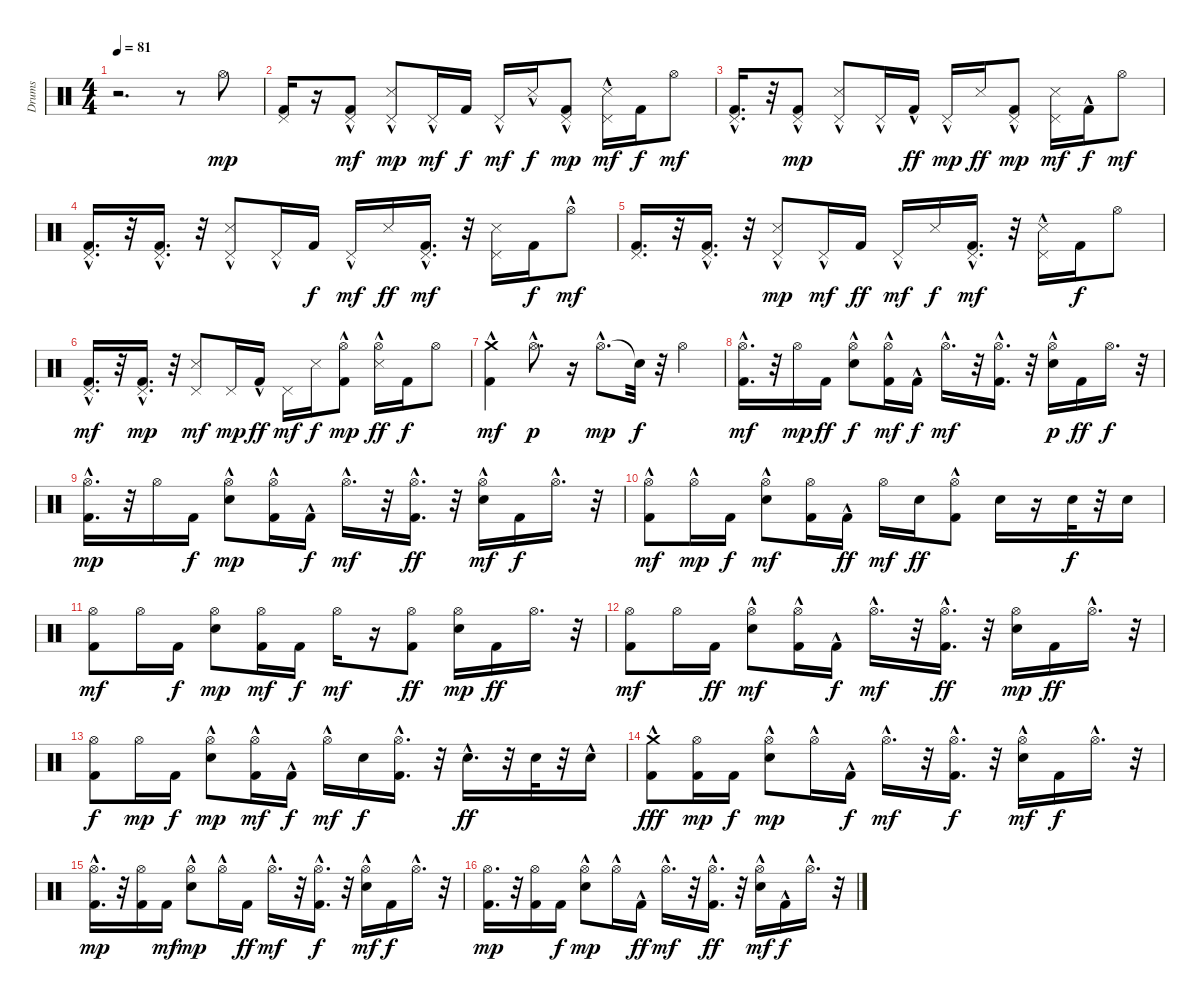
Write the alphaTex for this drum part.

\track ("Drums" "Drums") {instrument percussion}
\staff {score}
\articulation defaults
\ts (4 4)
\tempo 81
\clef neutral
\ks c
r.2{d dy mp} r.8 "Hi-Hat (open)".8 |
("Kick (hit) 2" "Pedal Hi-Hat (hit)").16 r.16 ("Kick (hit) 2" "Pedal Hi-Hat (hit)"{hac}).8{dy mf} ("Snare (side stick) 3" "Pedal Hi-Hat (hit)"{hac}).8{dy mp} "Pedal Hi-Hat (hit)"{hac}.16{dy mf} "Kick (hit) 2".16{dy f} "Pedal Hi-Hat (hit)"{hac}.16{dy mf} "Snare (side stick) 3"{hac}.16{dy f} ("Kick (hit) 2" "Pedal Hi-Hat (hit)"{hac}).8{dy mp} ("Snare (side stick) 3"{hac} "Pedal Hi-Hat (hit)").16{dy mf} "Kick (hit) 2".16{dy f} "Hi-Hat (open)".8{dy mf} |
("Kick (hit) 2" "Pedal Hi-Hat (hit)"{hac}).16{d} r.32 ("Kick (hit) 2" "Pedal Hi-Hat (hit)"{hac}).8{dy mp} ("Snare (side stick) 3" "Pedal Hi-Hat (hit)"{hac}).8 "Pedal Hi-Hat (hit)"{hac}.16 "Kick (hit) 2"{hac}.16{dy ff} "Pedal Hi-Hat (hit)"{hac}.16{dy mp} "Snare (side stick) 3".16{dy ff} ("Kick (hit) 2" "Pedal Hi-Hat (hit)"{hac}).8{dy mp} ("Snare (side stick) 3" "Pedal Hi-Hat (hit)").16{dy mf} "Kick (hit) 2"{hac}.16{dy f} "Hi-Hat (open)".8{dy mf} |
("Kick (hit) 2" "Pedal Hi-Hat (hit)"{hac}).16{d} r.32 ("Kick (hit) 2" "Pedal Hi-Hat (hit)"{hac}).16{d} r.32 ("Snare (side stick) 3" "Pedal Hi-Hat (hit)"{hac}).8 "Pedal Hi-Hat (hit)"{hac}.16 "Kick (hit) 2".16{dy f} "Pedal Hi-Hat (hit)"{hac}.16{dy mf} "Snare (side stick) 3".16{dy ff} ("Kick (hit) 2"{hac} "Pedal Hi-Hat (hit)"{hac}).16{d dy mf} r.32 ("Snare (side stick) 3" "Pedal Hi-Hat (hit)").16 "Kick (hit) 2".16{dy f} "Hi-Hat (open)"{hac}.8{dy mf} |
("Kick (hit) 2" "Pedal Hi-Hat (hit)").16{d} r.32 ("Kick (hit) 2"{hac} "Pedal Hi-Hat (hit)"{hac}).16{d} r.32 ("Snare (side stick) 3" "Pedal Hi-Hat (hit)"{hac}).8{dy mp} "Pedal Hi-Hat (hit)"{hac}.16{dy mf} "Kick (hit) 2".16{dy ff} "Pedal Hi-Hat (hit)"{hac}.16{dy mf} "Snare (side stick) 3".16{dy f} ("Kick (hit) 2"{hac} "Pedal Hi-Hat (hit)").16{d dy mf} r.32 ("Snare (side stick) 3" "Pedal Hi-Hat (hit)"{hac}).16 "Kick (hit) 2".16{dy f} "Hi-Hat (open)".8 |
("Kick (hit) 2" "Pedal Hi-Hat (hit)"{hac}).16{d dy mf} r.32 ("Kick (hit) 2"{hac} "Pedal Hi-Hat (hit)").16{d dy mp} r.32 ("Snare (side stick) 3" "Pedal Hi-Hat (hit)").8{dy mf} "Pedal Hi-Hat (hit)".16{dy mp} "Kick (hit) 2"{hac}.16{dy ff} "Pedal Hi-Hat (hit)".16{dy mf} "Snare (side stick) 3".16{dy f} ("Kick (hit) 2" "Hi-Hat (open)"{hac}).8{dy mp} ("Snare (side stick) 3" "Hi-Hat (open)"{hac}).16{dy ff} "Kick (hit) 2".16{dy f} "Hi-Hat (open)".8 |
("Kick (hit) 2"{hac} "Crash medium (hit)"{hac}).4{dy mf} "Hi-Hat (open)"{hac}.8{d dy p} r.16 "Hi-Hat (open)"{hac}.8{d dy mp} "Snare (hit)"{t}.32{dy f} r.32 "Hi-Hat (open)".4 |
("Kick (hit) 2"{hac} "Hi-Hat (open)"{hac}).16{d dy mf} r.32 "Hi-Hat (open)".16{dy mp} "Kick (hit) 2".16{dy ff} ("Electric Snare (hit)" "Hi-Hat (open)"{hac}).8{dy f} ("Kick (hit) 2" "Hi-Hat (open)"{hac}).16{dy mf} "Kick (hit) 2"{hac}.16{dy f} "Hi-Hat (open)"{hac}.16{d dy mf} r.32 ("Kick (hit) 2"{hac} "Hi-Hat (open)"{hac}).16{d} r.32 ("Electric Snare (hit)"{hac} "Hi-Hat (open)").16{dy p} "Kick (hit) 2".16{dy ff} "Hi-Hat (open)".16{d dy f} r.32 |
("Kick (hit) 2"{hac} "Hi-Hat (open)").16{d dy mp} r.32 "Hi-Hat (open)".16 "Kick (hit) 2".16{dy f} ("Electric Snare (hit)" "Hi-Hat (open)"{hac}).8{dy mp} ("Kick (hit) 2" "Hi-Hat (open)"{hac}).16 "Kick (hit) 2"{hac}.16{dy f} "Hi-Hat (open)"{hac}.16{d dy mf} r.32 ("Kick (hit) 2"{hac} "Hi-Hat (open)"{hac}).16{d dy ff} r.32 ("Electric Snare (hit)" "Hi-Hat (open)"{hac}).16{dy mf} "Kick (hit) 2".16{dy f} "Hi-Hat (open)"{hac}.16{d} r.32 |
("Kick (hit) 2" "Hi-Hat (open)"{hac}).8{dy mf} "Hi-Hat (open)"{hac}.16{dy mp} "Kick (hit) 2".16{dy f} ("Electric Snare (hit)" "Hi-Hat (open)"{hac}).8{dy mf} ("Kick (hit) 2" "Hi-Hat (open)").16 "Kick (hit) 2"{hac}.16{dy ff} "Hi-Hat (open)".16{dy mf} "Electric Snare (hit)".16{dy ff} ("Kick (hit) 2" "Hi-Hat (open)"{hac}).8 "Electric Snare (hit)".16 r.16 "Electric Snare (hit)".32{dy f} r.32 "Electric Snare (hit)".16 |
("Kick (hit) 2" "Hi-Hat (open)").8{dy mf} "Hi-Hat (open)".16 "Kick (hit) 2".16{dy f} ("Electric Snare (hit)" "Hi-Hat (open)").8{dy mp} ("Kick (hit) 2" "Hi-Hat (open)").16{dy mf} "Kick (hit) 2".16{dy f} "Hi-Hat (open)".16{dy mf} r.16 ("Kick (hit) 2" "Hi-Hat (open)").8{dy ff} ("Electric Snare (hit)" "Hi-Hat (open)").16{dy mp} "Kick (hit) 2".16{dy ff} "Hi-Hat (open)".16{d} r.32 |
("Kick (hit) 2" "Hi-Hat (open)").8{dy mf} "Hi-Hat (open)".16 "Kick (hit) 2".16{dy ff} ("Electric Snare (hit)" "Hi-Hat (open)"{hac}).8{dy mf} ("Kick (hit) 2" "Hi-Hat (open)"{hac}).16 "Kick (hit) 2"{hac}.16{dy f} "Hi-Hat (open)"{hac}.16{d dy mf} r.32 ("Kick (hit) 2"{hac} "Hi-Hat (open)"{hac}).16{d dy ff} r.32 ("Electric Snare (hit)" "Hi-Hat (open)").16{dy mp} "Kick (hit) 2".16{dy ff} "Hi-Hat (open)"{hac}.16{d} r.32 |
("Kick (hit) 2" "Hi-Hat (open)").8{dy f} "Hi-Hat (open)".16{dy mp} "Kick (hit) 2".16{dy f} ("Electric Snare (hit)" "Hi-Hat (open)"{hac}).8{dy mp} ("Kick (hit) 2" "Hi-Hat (open)"{hac}).16{dy mf} "Kick (hit) 2"{hac}.16{dy f} "Hi-Hat (open)"{hac}.16{dy mf} "Electric Snare (hit)".16{dy f} ("Kick (hit) 2"{hac} "Hi-Hat (open)"{hac}).16{d} r.32 "Electric Snare (hit)"{hac}.16{d dy ff} r.32 "Electric Snare (hit)".32 r.32 "Electric Snare (hit)"{hac}.16 |
("Kick (hit) 2" "Crash medium (hit)"{hac}).8{dy fff} ("Kick (hit) 2" "Hi-Hat (open)").16{dy mp} "Kick (hit) 2".16{dy f} ("Electric Snare (hit)" "Hi-Hat (open)"{hac}).8{dy mp} "Hi-Hat (open)"{hac}.16 "Kick (hit) 2"{hac}.16{dy f} "Hi-Hat (open)"{hac}.16{d dy mf} r.32 ("Kick (hit) 2"{hac} "Hi-Hat (open)"{hac}).16{d dy f} r.32 ("Electric Snare (hit)"{hac} "Hi-Hat (open)"{hac}).16{dy mf} "Kick (hit) 2".16{dy f} "Hi-Hat (open)"{hac}.16{d} r.32 |
("Kick (hit) 2"{hac} "Hi-Hat (open)").16{d dy mp} r.32 ("Kick (hit) 2" "Hi-Hat (open)").16 "Kick (hit) 2".16{dy mf} ("Electric Snare (hit)" "Hi-Hat (open)"{hac}).8{dy mp} "Hi-Hat (open)"{hac}.16 "Kick (hit) 2".16{dy ff} "Hi-Hat (open)"{hac}.16{d dy mf} r.32 ("Kick (hit) 2"{hac} "Hi-Hat (open)"{hac}).16{d dy f} r.32 ("Electric Snare (hit)" "Hi-Hat (open)"{hac}).16{dy mf} "Kick (hit) 2".16{dy f} "Hi-Hat (open)"{hac}.16{d} r.32 |
("Kick (hit) 2" "Hi-Hat (open)").16{d dy mp} r.32 ("Kick (hit) 2" "Hi-Hat (open)").16 "Kick (hit) 2".16{dy f} ("Electric Snare (hit)" "Hi-Hat (open)"{hac}).8{dy mp} "Hi-Hat (open)"{hac}.16 "Kick (hit) 2"{hac}.16{dy ff} "Hi-Hat (open)"{hac}.16{d dy mf} r.32 ("Kick (hit) 2"{hac} "Hi-Hat (open)"{hac}).16{d dy ff} r.32 ("Electric Snare (hit)" "Hi-Hat (open)"{hac}).16{dy mf} "Kick (hit) 2"{hac}.16{dy f} "Hi-Hat (open)"{hac}.16{d} r.32
